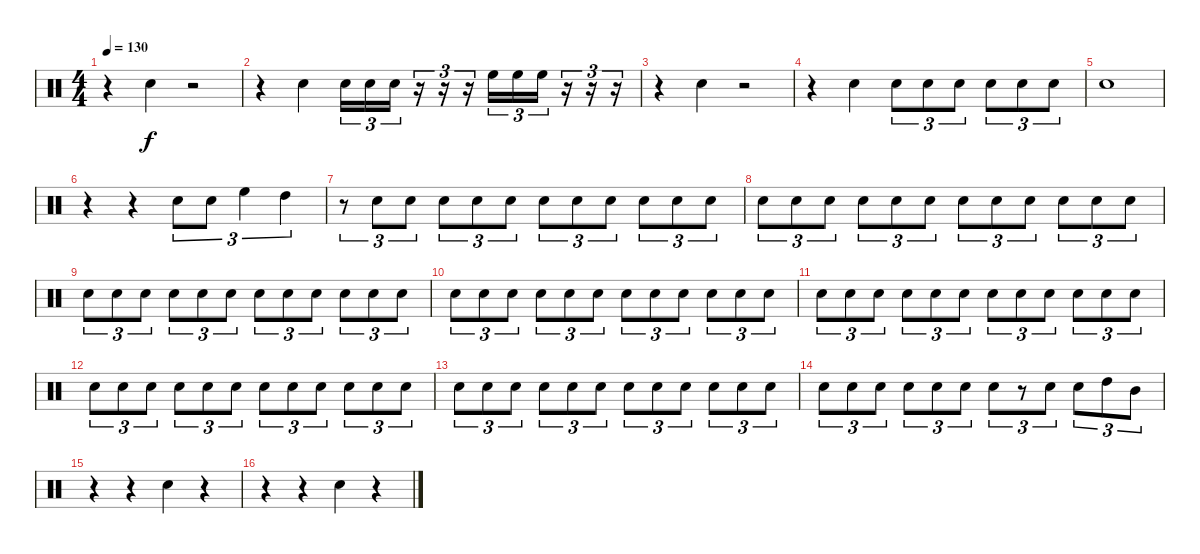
\track "" {instrument percussion}
\staff {score}
\articulation defaults
\ts (4 4)
\tempo 130
\clef neutral
\ks c
r.4{dy f} "Electric Snare (hit)".4 r.2 |
r.4 "Electric Snare (hit)".4 "Electric Snare (hit)".16{tu (3 2)} "Electric Snare (hit)".16{tu (3 2)} "Electric Snare (hit)".16{tu (3 2)} r.16{tu (3 2)} r.16{tu (3 2)} r.16{tu (3 2)} "High Floor Tom (hit)".16{tu (3 2)} "High Floor Tom (hit)".16{tu (3 2)} "High Floor Tom (hit)".16{tu (3 2)} r.16{tu (3 2)} r.16{tu (3 2)} r.16{tu (3 2)} |
r.4 "Electric Snare (hit)".4 r.2 |
r.4 "Electric Snare (hit)".4 "Electric Snare (hit)".8{tu (3 2)} "Electric Snare (hit)".8{tu (3 2)} "Electric Snare (hit)".8{tu (3 2)} "Electric Snare (hit)".8{tu (3 2)} "Electric Snare (hit)".8{tu (3 2)} "Electric Snare (hit)".8{tu (3 2)} |
"Electric Snare (hit)".1 |
r.4 r.4 "Electric Snare (hit)".8{tu (3 2)} "Electric Snare (hit)".8{tu (3 2)} "High Floor Tom (hit)".4{tu (3 2)} "High Tom (hit)".4{tu (3 2)} |
r.8{tu (3 2)} "Electric Snare (hit)".8{tu (3 2)} "Electric Snare (hit)".8{tu (3 2)} "Electric Snare (hit)".8{tu (3 2)} "Electric Snare (hit)".8{tu (3 2)} "Electric Snare (hit)".8{tu (3 2)} "Electric Snare (hit)".8{tu (3 2)} "Electric Snare (hit)".8{tu (3 2)} "Electric Snare (hit)".8{tu (3 2)} "Electric Snare (hit)".8{tu (3 2)} "Electric Snare (hit)".8{tu (3 2)} "Electric Snare (hit)".8{tu (3 2)} |
"Electric Snare (hit)".8{tu (3 2)} "Electric Snare (hit)".8{tu (3 2)} "Electric Snare (hit)".8{tu (3 2)} "Electric Snare (hit)".8{tu (3 2)} "Electric Snare (hit)".8{tu (3 2)} "Electric Snare (hit)".8{tu (3 2)} "Electric Snare (hit)".8{tu (3 2)} "Electric Snare (hit)".8{tu (3 2)} "Electric Snare (hit)".8{tu (3 2)} "Electric Snare (hit)".8{tu (3 2)} "Electric Snare (hit)".8{tu (3 2)} "Electric Snare (hit)".8{tu (3 2)} |
"Electric Snare (hit)".8{tu (3 2)} "Electric Snare (hit)".8{tu (3 2)} "Electric Snare (hit)".8{tu (3 2)} "Electric Snare (hit)".8{tu (3 2)} "Electric Snare (hit)".8{tu (3 2)} "Electric Snare (hit)".8{tu (3 2)} "Electric Snare (hit)".8{tu (3 2)} "Electric Snare (hit)".8{tu (3 2)} "Electric Snare (hit)".8{tu (3 2)} "Electric Snare (hit)".8{tu (3 2)} "Electric Snare (hit)".8{tu (3 2)} "Electric Snare (hit)".8{tu (3 2)} |
"Electric Snare (hit)".8{tu (3 2)} "Electric Snare (hit)".8{tu (3 2)} "Electric Snare (hit)".8{tu (3 2)} "Electric Snare (hit)".8{tu (3 2)} "Electric Snare (hit)".8{tu (3 2)} "Electric Snare (hit)".8{tu (3 2)} "Electric Snare (hit)".8{tu (3 2)} "Electric Snare (hit)".8{tu (3 2)} "Electric Snare (hit)".8{tu (3 2)} "Electric Snare (hit)".8{tu (3 2)} "Electric Snare (hit)".8{tu (3 2)} "Electric Snare (hit)".8{tu (3 2)} |
"Electric Snare (hit)".8{tu (3 2)} "Electric Snare (hit)".8{tu (3 2)} "Electric Snare (hit)".8{tu (3 2)} "Electric Snare (hit)".8{tu (3 2)} "Electric Snare (hit)".8{tu (3 2)} "Electric Snare (hit)".8{tu (3 2)} "Electric Snare (hit)".8{tu (3 2)} "Electric Snare (hit)".8{tu (3 2)} "Electric Snare (hit)".8{tu (3 2)} "Electric Snare (hit)".8{tu (3 2)} "Electric Snare (hit)".8{tu (3 2)} "Electric Snare (hit)".8{tu (3 2)} |
"Electric Snare (hit)".8{tu (3 2)} "Electric Snare (hit)".8{tu (3 2)} "Electric Snare (hit)".8{tu (3 2)} "Electric Snare (hit)".8{tu (3 2)} "Electric Snare (hit)".8{tu (3 2)} "Electric Snare (hit)".8{tu (3 2)} "Electric Snare (hit)".8{tu (3 2)} "Electric Snare (hit)".8{tu (3 2)} "Electric Snare (hit)".8{tu (3 2)} "Electric Snare (hit)".8{tu (3 2)} "Electric Snare (hit)".8{tu (3 2)} "Electric Snare (hit)".8{tu (3 2)} |
"Electric Snare (hit)".8{tu (3 2)} "Electric Snare (hit)".8{tu (3 2)} "Electric Snare (hit)".8{tu (3 2)} "Electric Snare (hit)".8{tu (3 2)} "Electric Snare (hit)".8{tu (3 2)} "Electric Snare (hit)".8{tu (3 2)} "Electric Snare (hit)".8{tu (3 2)} "Electric Snare (hit)".8{tu (3 2)} "Electric Snare (hit)".8{tu (3 2)} "Electric Snare (hit)".8{tu (3 2)} "Electric Snare (hit)".8{tu (3 2)} "Electric Snare (hit)".8{tu (3 2)} |
"Electric Snare (hit)".8{tu (3 2)} "Electric Snare (hit)".8{tu (3 2)} "Electric Snare (hit)".8{tu (3 2)} "Electric Snare (hit)".8{tu (3 2)} "Electric Snare (hit)".8{tu (3 2)} "Electric Snare (hit)".8{tu (3 2)} "Electric Snare (hit)".8{tu (3 2)} r.8{tu (3 2)} "Electric Snare (hit)".8{tu (3 2)} "Electric Snare (hit)".8{tu (3 2)} "High Tom (hit)".8{tu (3 2)} "Mid Tom (hit)".8{tu (3 2)} |
r.4 r.4 "Electric Snare (hit)".4 r.4 |
r.4 r.4 "Electric Snare (hit)".4 r.4
